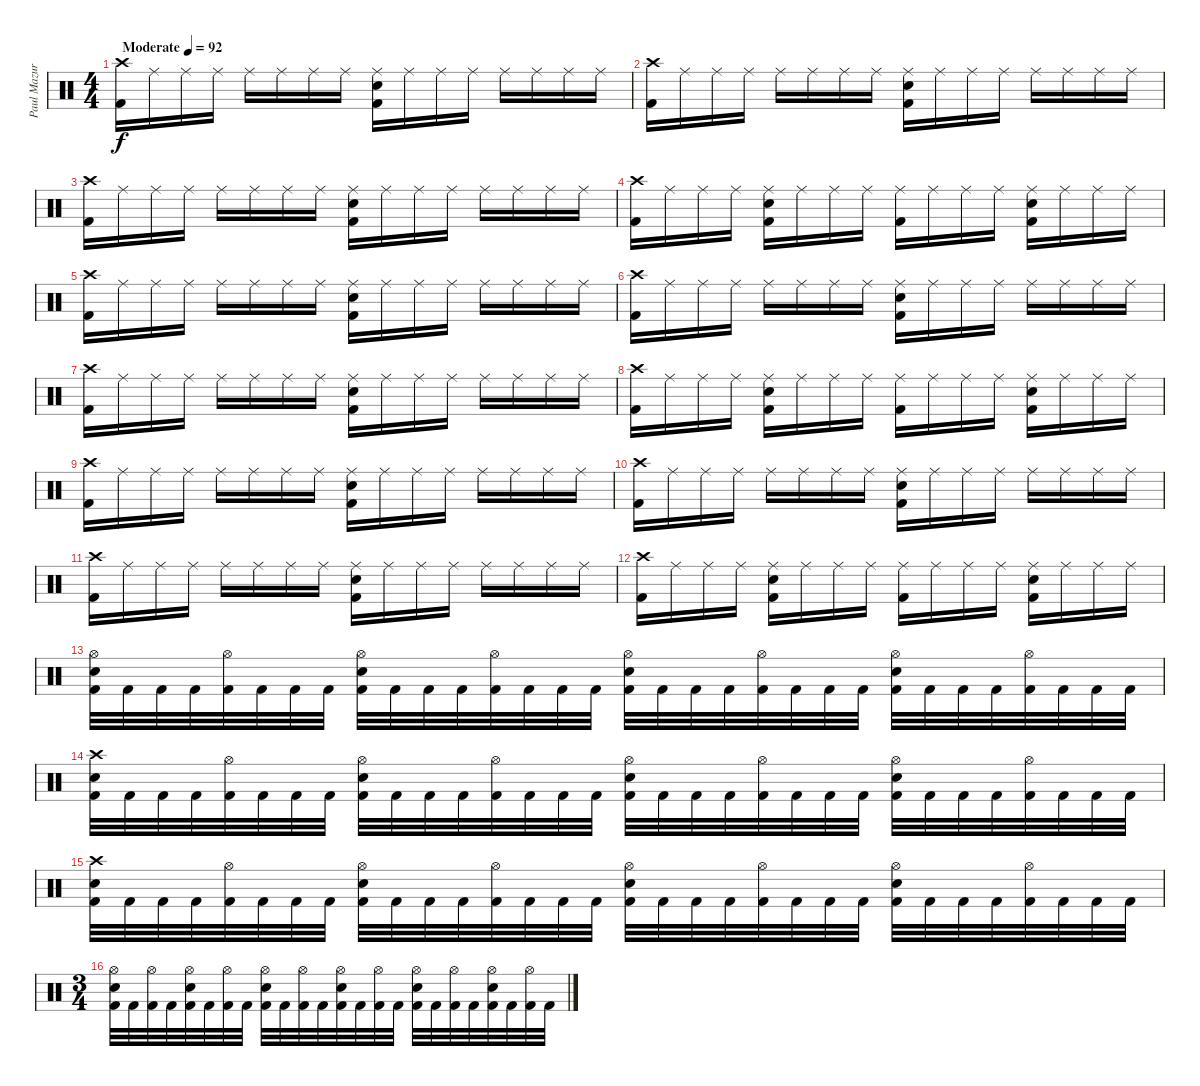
\track ("Paul Mazurkiewicz" "Paul Mazur") {instrument percussion}
\staff {score}
\articulation defaults
\ts (4 4)
\tempo (92 "Moderate")
\clef neutral
\ks c
("Crash high (hit)" "Kick (hit) 2").16{dy f} "Ride (middle)".16 "Ride (middle)".16 "Ride (middle)".16 "Ride (middle)".16 "Ride (middle)".16 "Ride (middle)".16 "Ride (middle)".16 ("Ride (middle)" "Snare (hit) 2" "Kick (hit) 2").16 "Ride (middle)".16 "Ride (middle)".16 "Ride (middle)".16 "Ride (middle)".16 "Ride (middle)".16 "Ride (middle)".16 "Ride (middle)".16 |
("Crash high (hit)" "Kick (hit) 2").16 "Ride (middle)".16 "Ride (middle)".16 "Ride (middle)".16 "Ride (middle)".16 "Ride (middle)".16 "Ride (middle)".16 "Ride (middle)".16 ("Ride (middle)" "Snare (hit) 2" "Kick (hit) 2").16 "Ride (middle)".16 "Ride (middle)".16 "Ride (middle)".16 "Ride (middle)".16 "Ride (middle)".16 "Ride (middle)".16 "Ride (middle)".16 |
("Crash high (hit)" "Kick (hit) 2").16 "Ride (middle)".16 "Ride (middle)".16 "Ride (middle)".16 "Ride (middle)".16 "Ride (middle)".16 "Ride (middle)".16 "Ride (middle)".16 ("Ride (middle)" "Snare (hit) 2" "Kick (hit) 2").16 "Ride (middle)".16 "Ride (middle)".16 "Ride (middle)".16 "Ride (middle)".16 "Ride (middle)".16 "Ride (middle)".16 "Ride (middle)".16 |
("Crash high (hit)" "Kick (hit) 2").16 "Ride (middle)".16 "Ride (middle)".16 "Ride (middle)".16 ("Ride (middle)" "Snare (hit) 2" "Kick (hit) 2").16 "Ride (middle)".16 "Ride (middle)".16 "Ride (middle)".16 ("Ride (middle)" "Kick (hit) 2").16 "Ride (middle)".16 "Ride (middle)".16 "Ride (middle)".16 ("Ride (middle)" "Snare (hit) 2" "Kick (hit) 2").16 "Ride (middle)".16 "Ride (middle)".16 "Ride (middle)".16 |
("Crash high (hit)" "Kick (hit) 2").16 "Ride (middle)".16 "Ride (middle)".16 "Ride (middle)".16 "Ride (middle)".16 "Ride (middle)".16 "Ride (middle)".16 "Ride (middle)".16 ("Ride (middle)" "Snare (hit) 2" "Kick (hit) 2").16 "Ride (middle)".16 "Ride (middle)".16 "Ride (middle)".16 "Ride (middle)".16 "Ride (middle)".16 "Ride (middle)".16 "Ride (middle)".16 |
("Crash high (hit)" "Kick (hit) 2").16 "Ride (middle)".16 "Ride (middle)".16 "Ride (middle)".16 "Ride (middle)".16 "Ride (middle)".16 "Ride (middle)".16 "Ride (middle)".16 ("Ride (middle)" "Snare (hit) 2" "Kick (hit) 2").16 "Ride (middle)".16 "Ride (middle)".16 "Ride (middle)".16 "Ride (middle)".16 "Ride (middle)".16 "Ride (middle)".16 "Ride (middle)".16 |
("Crash high (hit)" "Kick (hit) 2").16 "Ride (middle)".16 "Ride (middle)".16 "Ride (middle)".16 "Ride (middle)".16 "Ride (middle)".16 "Ride (middle)".16 "Ride (middle)".16 ("Ride (middle)" "Snare (hit) 2" "Kick (hit) 2").16 "Ride (middle)".16 "Ride (middle)".16 "Ride (middle)".16 "Ride (middle)".16 "Ride (middle)".16 "Ride (middle)".16 "Ride (middle)".16 |
("Crash high (hit)" "Kick (hit) 2").16 "Ride (middle)".16 "Ride (middle)".16 "Ride (middle)".16 ("Ride (middle)" "Snare (hit) 2" "Kick (hit) 2").16 "Ride (middle)".16 "Ride (middle)".16 "Ride (middle)".16 ("Ride (middle)" "Kick (hit) 2").16 "Ride (middle)".16 "Ride (middle)".16 "Ride (middle)".16 ("Ride (middle)" "Snare (hit) 2" "Kick (hit) 2").16 "Ride (middle)".16 "Ride (middle)".16 "Ride (middle)".16 |
("Crash high (hit)" "Kick (hit) 2").16 "Ride (middle)".16 "Ride (middle)".16 "Ride (middle)".16 "Ride (middle)".16 "Ride (middle)".16 "Ride (middle)".16 "Ride (middle)".16 ("Ride (middle)" "Snare (hit) 2" "Kick (hit) 2").16 "Ride (middle)".16 "Ride (middle)".16 "Ride (middle)".16 "Ride (middle)".16 "Ride (middle)".16 "Ride (middle)".16 "Ride (middle)".16 |
("Crash high (hit)" "Kick (hit) 2").16 "Ride (middle)".16 "Ride (middle)".16 "Ride (middle)".16 "Ride (middle)".16 "Ride (middle)".16 "Ride (middle)".16 "Ride (middle)".16 ("Ride (middle)" "Snare (hit) 2" "Kick (hit) 2").16 "Ride (middle)".16 "Ride (middle)".16 "Ride (middle)".16 "Ride (middle)".16 "Ride (middle)".16 "Ride (middle)".16 "Ride (middle)".16 |
("Crash high (hit)" "Kick (hit) 2").16 "Ride (middle)".16 "Ride (middle)".16 "Ride (middle)".16 "Ride (middle)".16 "Ride (middle)".16 "Ride (middle)".16 "Ride (middle)".16 ("Ride (middle)" "Snare (hit) 2" "Kick (hit) 2").16 "Ride (middle)".16 "Ride (middle)".16 "Ride (middle)".16 "Ride (middle)".16 "Ride (middle)".16 "Ride (middle)".16 "Ride (middle)".16 |
("Crash high (hit)" "Kick (hit) 2").16 "Ride (middle)".16 "Ride (middle)".16 "Ride (middle)".16 ("Ride (middle)" "Snare (hit) 2" "Kick (hit) 2").16 "Ride (middle)".16 "Ride (middle)".16 "Ride (middle)".16 ("Ride (middle)" "Kick (hit) 2").16 "Ride (middle)".16 "Ride (middle)".16 "Ride (middle)".16 ("Ride (middle)" "Snare (hit) 2" "Kick (hit) 2").16 "Ride (middle)".16 "Ride (middle)".16 "Ride (middle)".16 |
("Hi-Hat (open)" "Electric Snare (hit)" "Kick (hit) 2").32 "Kick (hit) 2".32 "Kick (hit) 2".32 "Kick (hit) 2".32 ("Hi-Hat (open)" "Kick (hit) 2").32 "Kick (hit) 2".32 "Kick (hit) 2".32 "Kick (hit) 2".32 ("Hi-Hat (open)" "Electric Snare (hit)" "Kick (hit) 2").32 "Kick (hit) 2".32 "Kick (hit) 2".32 "Kick (hit) 2".32 ("Hi-Hat (open)" "Kick (hit) 2").32 "Kick (hit) 2".32 "Kick (hit) 2".32 "Kick (hit) 2".32 ("Hi-Hat (open)" "Electric Snare (hit)" "Kick (hit) 2").32 "Kick (hit) 2".32 "Kick (hit) 2".32 "Kick (hit) 2".32 ("Hi-Hat (open)" "Kick (hit) 2").32 "Kick (hit) 2".32 "Kick (hit) 2".32 "Kick (hit) 2".32 ("Hi-Hat (open)" "Electric Snare (hit)" "Kick (hit) 2").32 "Kick (hit) 2".32 "Kick (hit) 2".32 "Kick (hit) 2".32 ("Hi-Hat (open)" "Kick (hit) 2").32 "Kick (hit) 2".32 "Kick (hit) 2".32 "Kick (hit) 2".32 |
("Crash high (hit)" "Electric Snare (hit)" "Kick (hit) 2").32 "Kick (hit) 2".32 "Kick (hit) 2".32 "Kick (hit) 2".32 ("Hi-Hat (open)" "Kick (hit) 2").32 "Kick (hit) 2".32 "Kick (hit) 2".32 "Kick (hit) 2".32 ("Hi-Hat (open)" "Electric Snare (hit)" "Kick (hit) 2").32 "Kick (hit) 2".32 "Kick (hit) 2".32 "Kick (hit) 2".32 ("Hi-Hat (open)" "Kick (hit) 2").32 "Kick (hit) 2".32 "Kick (hit) 2".32 "Kick (hit) 2".32 ("Hi-Hat (open)" "Electric Snare (hit)" "Kick (hit) 2").32 "Kick (hit) 2".32 "Kick (hit) 2".32 "Kick (hit) 2".32 ("Hi-Hat (open)" "Kick (hit) 2").32 "Kick (hit) 2".32 "Kick (hit) 2".32 "Kick (hit) 2".32 ("Hi-Hat (open)" "Electric Snare (hit)" "Kick (hit) 2").32 "Kick (hit) 2".32 "Kick (hit) 2".32 "Kick (hit) 2".32 ("Hi-Hat (open)" "Kick (hit) 2").32 "Kick (hit) 2".32 "Kick (hit) 2".32 "Kick (hit) 2".32 |
("Crash high (hit)" "Electric Snare (hit)" "Kick (hit) 2").32 "Kick (hit) 2".32 "Kick (hit) 2".32 "Kick (hit) 2".32 ("Hi-Hat (open)" "Kick (hit) 2").32 "Kick (hit) 2".32 "Kick (hit) 2".32 "Kick (hit) 2".32 ("Hi-Hat (open)" "Electric Snare (hit)" "Kick (hit) 2").32 "Kick (hit) 2".32 "Kick (hit) 2".32 "Kick (hit) 2".32 ("Hi-Hat (open)" "Kick (hit) 2").32 "Kick (hit) 2".32 "Kick (hit) 2".32 "Kick (hit) 2".32 ("Hi-Hat (open)" "Electric Snare (hit)" "Kick (hit) 2").32 "Kick (hit) 2".32 "Kick (hit) 2".32 "Kick (hit) 2".32 ("Hi-Hat (open)" "Kick (hit) 2").32 "Kick (hit) 2".32 "Kick (hit) 2".32 "Kick (hit) 2".32 ("Hi-Hat (open)" "Electric Snare (hit)" "Kick (hit) 2").32 "Kick (hit) 2".32 "Kick (hit) 2".32 "Kick (hit) 2".32 ("Hi-Hat (open)" "Kick (hit) 2").32 "Kick (hit) 2".32 "Kick (hit) 2".32 "Kick (hit) 2".32 |
\ts (3 4)
("Hi-Hat (open)" "Electric Snare (hit)" "Kick (hit) 2").32 "Kick (hit) 2".32 ("Hi-Hat (open)" "Kick (hit) 2").32 "Kick (hit) 2".32 ("Hi-Hat (open)" "Electric Snare (hit)" "Kick (hit) 2").32 "Kick (hit) 2".32 ("Hi-Hat (open)" "Kick (hit) 2").32 "Kick (hit) 2".32 ("Hi-Hat (open)" "Electric Snare (hit)" "Kick (hit) 2").32 "Kick (hit) 2".32 ("Hi-Hat (open)" "Kick (hit) 2").32 "Kick (hit) 2".32 ("Hi-Hat (open)" "Electric Snare (hit)" "Kick (hit) 2").32 "Kick (hit) 2".32 ("Hi-Hat (open)" "Kick (hit) 2").32 "Kick (hit) 2".32 ("Hi-Hat (open)" "Electric Snare (hit)" "Kick (hit) 2").32 "Kick (hit) 2".32 ("Hi-Hat (open)" "Kick (hit) 2").32 "Kick (hit) 2".32 ("Hi-Hat (open)" "Electric Snare (hit)" "Kick (hit) 2").32 "Kick (hit) 2".32 ("Hi-Hat (open)" "Kick (hit) 2").32 "Kick (hit) 2".32
